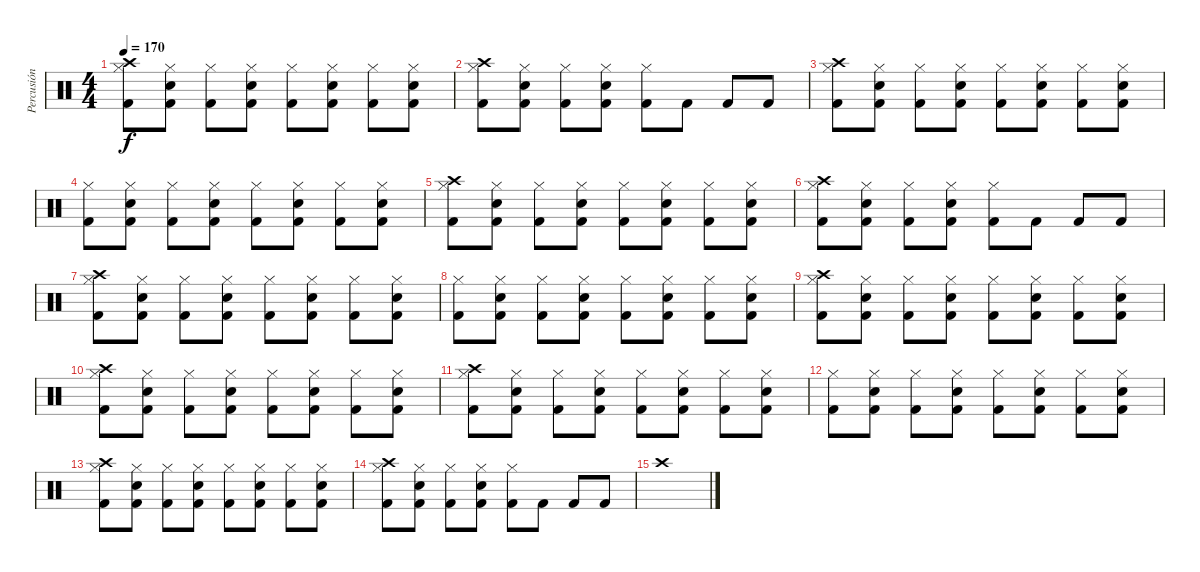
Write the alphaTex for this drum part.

\track ("Percusión" "Percusión") {instrument percussion}
\staff {score}
\articulation defaults
\ts (4 4)
\tempo 170
\clef neutral
\ks c
("Hi-Hat (closed)" "Crash high (hit)" "Kick (hit) 2").8{dy f} ("Hi-Hat (closed)" "Snare (hit) 2" "Kick (hit) 2").8 ("Hi-Hat (closed)" "Kick (hit) 2").8 ("Hi-Hat (closed)" "Snare (hit) 2" "Kick (hit) 2").8 ("Hi-Hat (closed)" "Kick (hit) 2").8 ("Hi-Hat (closed)" "Snare (hit) 2" "Kick (hit) 2").8 ("Hi-Hat (closed)" "Kick (hit) 2").8 ("Hi-Hat (closed)" "Snare (hit) 2" "Kick (hit) 2").8 |
("Hi-Hat (closed)" "Crash high (hit)" "Kick (hit) 2").8 ("Hi-Hat (closed)" "Snare (hit) 2" "Kick (hit) 2").8 ("Hi-Hat (closed)" "Kick (hit) 2").8 ("Hi-Hat (closed)" "Snare (hit) 2" "Kick (hit) 2").8 ("Hi-Hat (closed)" "Kick (hit) 2").8 "Kick (hit) 2".8 "Kick (hit) 2".8 "Kick (hit) 2".8 |
("Hi-Hat (closed)" "Crash high (hit)" "Kick (hit) 2").8 ("Hi-Hat (closed)" "Snare (hit) 2" "Kick (hit) 2").8 ("Hi-Hat (closed)" "Kick (hit) 2").8 ("Hi-Hat (closed)" "Snare (hit) 2" "Kick (hit) 2").8 ("Hi-Hat (closed)" "Kick (hit) 2").8 ("Hi-Hat (closed)" "Snare (hit) 2" "Kick (hit) 2").8 ("Hi-Hat (closed)" "Kick (hit) 2").8 ("Hi-Hat (closed)" "Snare (hit) 2" "Kick (hit) 2").8 |
("Hi-Hat (closed)" "Kick (hit) 2").8 ("Hi-Hat (closed)" "Snare (hit) 2" "Kick (hit) 2").8 ("Hi-Hat (closed)" "Kick (hit) 2").8 ("Hi-Hat (closed)" "Snare (hit) 2" "Kick (hit) 2").8 ("Hi-Hat (closed)" "Kick (hit) 2").8 ("Hi-Hat (closed)" "Snare (hit) 2" "Kick (hit) 2").8 ("Hi-Hat (closed)" "Kick (hit) 2").8 ("Hi-Hat (closed)" "Snare (hit) 2" "Kick (hit) 2").8 |
("Hi-Hat (closed)" "Crash high (hit)" "Kick (hit) 2").8 ("Hi-Hat (closed)" "Snare (hit) 2" "Kick (hit) 2").8 ("Hi-Hat (closed)" "Kick (hit) 2").8 ("Hi-Hat (closed)" "Snare (hit) 2" "Kick (hit) 2").8 ("Hi-Hat (closed)" "Kick (hit) 2").8 ("Hi-Hat (closed)" "Snare (hit) 2" "Kick (hit) 2").8 ("Hi-Hat (closed)" "Kick (hit) 2").8 ("Hi-Hat (closed)" "Snare (hit) 2" "Kick (hit) 2").8 |
("Hi-Hat (closed)" "Crash high (hit)" "Kick (hit) 2").8 ("Hi-Hat (closed)" "Snare (hit) 2" "Kick (hit) 2").8 ("Hi-Hat (closed)" "Kick (hit) 2").8 ("Hi-Hat (closed)" "Snare (hit) 2" "Kick (hit) 2").8 ("Hi-Hat (closed)" "Kick (hit) 2").8 "Kick (hit) 2".8 "Kick (hit) 2".8 "Kick (hit) 2".8 |
("Hi-Hat (closed)" "Crash high (hit)" "Kick (hit) 2").8 ("Hi-Hat (closed)" "Snare (hit) 2" "Kick (hit) 2").8 ("Hi-Hat (closed)" "Kick (hit) 2").8 ("Hi-Hat (closed)" "Snare (hit) 2" "Kick (hit) 2").8 ("Hi-Hat (closed)" "Kick (hit) 2").8 ("Hi-Hat (closed)" "Snare (hit) 2" "Kick (hit) 2").8 ("Hi-Hat (closed)" "Kick (hit) 2").8 ("Hi-Hat (closed)" "Snare (hit) 2" "Kick (hit) 2").8 |
("Hi-Hat (closed)" "Kick (hit) 2").8 ("Hi-Hat (closed)" "Snare (hit) 2" "Kick (hit) 2").8 ("Hi-Hat (closed)" "Kick (hit) 2").8 ("Hi-Hat (closed)" "Snare (hit) 2" "Kick (hit) 2").8 ("Hi-Hat (closed)" "Kick (hit) 2").8 ("Hi-Hat (closed)" "Snare (hit) 2" "Kick (hit) 2").8 ("Hi-Hat (closed)" "Kick (hit) 2").8 ("Hi-Hat (closed)" "Snare (hit) 2" "Kick (hit) 2").8 |
("Hi-Hat (closed)" "Crash high (hit)" "Kick (hit) 2").8 ("Hi-Hat (closed)" "Snare (hit) 2" "Kick (hit) 2").8 ("Hi-Hat (closed)" "Kick (hit) 2").8 ("Hi-Hat (closed)" "Snare (hit) 2" "Kick (hit) 2").8 ("Hi-Hat (closed)" "Kick (hit) 2").8 ("Hi-Hat (closed)" "Snare (hit) 2" "Kick (hit) 2").8 ("Hi-Hat (closed)" "Kick (hit) 2").8 ("Hi-Hat (closed)" "Snare (hit) 2" "Kick (hit) 2").8 |
("Hi-Hat (closed)" "Crash high (hit)" "Kick (hit) 2").8 ("Hi-Hat (closed)" "Snare (hit) 2" "Kick (hit) 2").8 ("Hi-Hat (closed)" "Kick (hit) 2").8 ("Hi-Hat (closed)" "Snare (hit) 2" "Kick (hit) 2").8 ("Hi-Hat (closed)" "Kick (hit) 2").8 ("Hi-Hat (closed)" "Snare (hit) 2" "Kick (hit) 2").8 ("Hi-Hat (closed)" "Kick (hit) 2").8 ("Hi-Hat (closed)" "Snare (hit) 2" "Kick (hit) 2").8 |
("Hi-Hat (closed)" "Crash high (hit)" "Kick (hit) 2").8 ("Hi-Hat (closed)" "Snare (hit) 2" "Kick (hit) 2").8 ("Hi-Hat (closed)" "Kick (hit) 2").8 ("Hi-Hat (closed)" "Snare (hit) 2" "Kick (hit) 2").8 ("Hi-Hat (closed)" "Kick (hit) 2").8 ("Hi-Hat (closed)" "Snare (hit) 2" "Kick (hit) 2").8 ("Hi-Hat (closed)" "Kick (hit) 2").8 ("Hi-Hat (closed)" "Snare (hit) 2" "Kick (hit) 2").8 |
("Hi-Hat (closed)" "Kick (hit) 2").8 ("Hi-Hat (closed)" "Snare (hit) 2" "Kick (hit) 2").8 ("Hi-Hat (closed)" "Kick (hit) 2").8 ("Hi-Hat (closed)" "Snare (hit) 2" "Kick (hit) 2").8 ("Hi-Hat (closed)" "Kick (hit) 2").8 ("Hi-Hat (closed)" "Snare (hit) 2" "Kick (hit) 2").8 ("Hi-Hat (closed)" "Kick (hit) 2").8 ("Hi-Hat (closed)" "Snare (hit) 2" "Kick (hit) 2").8 |
("Hi-Hat (closed)" "Crash high (hit)" "Kick (hit) 2").8 ("Hi-Hat (closed)" "Snare (hit) 2" "Kick (hit) 2").8 ("Hi-Hat (closed)" "Kick (hit) 2").8 ("Hi-Hat (closed)" "Snare (hit) 2" "Kick (hit) 2").8 ("Hi-Hat (closed)" "Kick (hit) 2").8 ("Hi-Hat (closed)" "Snare (hit) 2" "Kick (hit) 2").8 ("Hi-Hat (closed)" "Kick (hit) 2").8 ("Hi-Hat (closed)" "Snare (hit) 2" "Kick (hit) 2").8 |
("Hi-Hat (closed)" "Crash high (hit)" "Kick (hit) 2").8 ("Hi-Hat (closed)" "Snare (hit) 2" "Kick (hit) 2").8 ("Hi-Hat (closed)" "Kick (hit) 2").8 ("Hi-Hat (closed)" "Snare (hit) 2" "Kick (hit) 2").8 ("Hi-Hat (closed)" "Kick (hit) 2").8 "Kick (hit) 2".8 "Kick (hit) 2".8 "Kick (hit) 2".8 |
"Crash high (hit)".1
